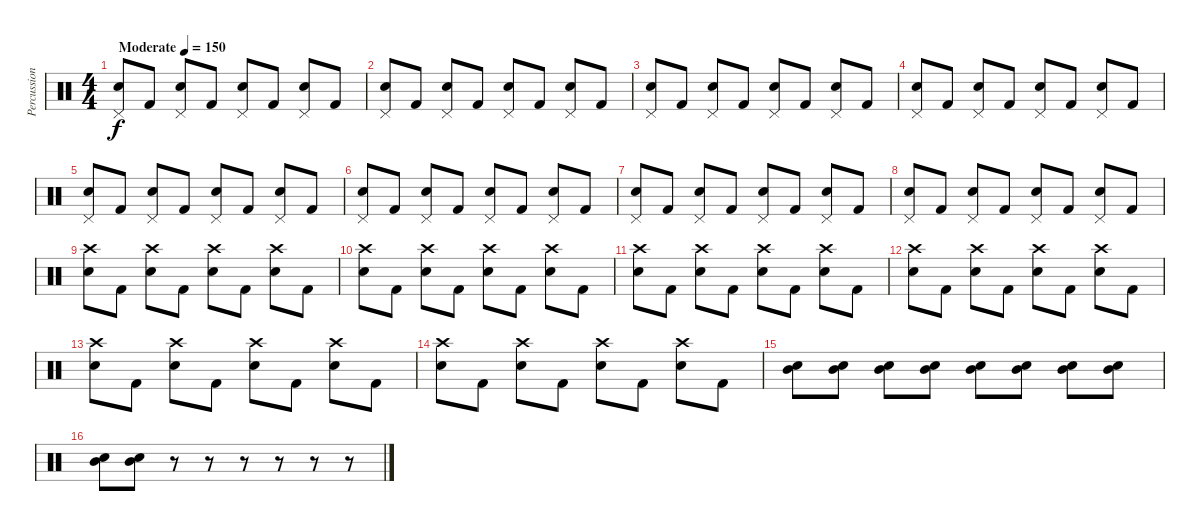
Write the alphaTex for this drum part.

\track ("Percussion" "Percussion") {instrument percussion}
\staff {score}
\articulation defaults
\ts (4 4)
\tempo (150 "Moderate")
\clef neutral
\ks c
("Pedal Hi-Hat (hit)" "Snare (hit) 2").8{dy f} "Kick (hit) 2".8 ("Pedal Hi-Hat (hit)" "Snare (hit) 2").8 "Kick (hit) 2".8 ("Pedal Hi-Hat (hit)" "Snare (hit) 2").8 "Kick (hit) 2".8 ("Pedal Hi-Hat (hit)" "Snare (hit) 2").8 "Kick (hit) 2".8 |
("Pedal Hi-Hat (hit)" "Snare (hit) 2").8 "Kick (hit) 2".8 ("Pedal Hi-Hat (hit)" "Snare (hit) 2").8 "Kick (hit) 2".8 ("Pedal Hi-Hat (hit)" "Snare (hit) 2").8 "Kick (hit) 2".8 ("Pedal Hi-Hat (hit)" "Snare (hit) 2").8 "Kick (hit) 2".8 |
("Pedal Hi-Hat (hit)" "Snare (hit) 2").8 "Kick (hit) 2".8 ("Pedal Hi-Hat (hit)" "Snare (hit) 2").8 "Kick (hit) 2".8 ("Pedal Hi-Hat (hit)" "Snare (hit) 2").8 "Kick (hit) 2".8 ("Pedal Hi-Hat (hit)" "Snare (hit) 2").8 "Kick (hit) 2".8 |
("Pedal Hi-Hat (hit)" "Snare (hit) 2").8 "Kick (hit) 2".8 ("Pedal Hi-Hat (hit)" "Snare (hit) 2").8 "Kick (hit) 2".8 ("Pedal Hi-Hat (hit)" "Snare (hit) 2").8 "Kick (hit) 2".8 ("Pedal Hi-Hat (hit)" "Snare (hit) 2").8 "Kick (hit) 2".8 |
("Pedal Hi-Hat (hit)" "Snare (hit) 2").8 "Kick (hit) 2".8 ("Pedal Hi-Hat (hit)" "Snare (hit) 2").8 "Kick (hit) 2".8 ("Pedal Hi-Hat (hit)" "Snare (hit) 2").8 "Kick (hit) 2".8 ("Pedal Hi-Hat (hit)" "Snare (hit) 2").8 "Kick (hit) 2".8 |
("Pedal Hi-Hat (hit)" "Snare (hit) 2").8 "Kick (hit) 2".8 ("Pedal Hi-Hat (hit)" "Snare (hit) 2").8 "Kick (hit) 2".8 ("Pedal Hi-Hat (hit)" "Snare (hit) 2").8 "Kick (hit) 2".8 ("Pedal Hi-Hat (hit)" "Snare (hit) 2").8 "Kick (hit) 2".8 |
("Pedal Hi-Hat (hit)" "Snare (hit) 2").8 "Kick (hit) 2".8 ("Pedal Hi-Hat (hit)" "Snare (hit) 2").8 "Kick (hit) 2".8 ("Pedal Hi-Hat (hit)" "Snare (hit) 2").8 "Kick (hit) 2".8 ("Pedal Hi-Hat (hit)" "Snare (hit) 2").8 "Kick (hit) 2".8 |
("Pedal Hi-Hat (hit)" "Snare (hit) 2").8 "Kick (hit) 2".8 ("Pedal Hi-Hat (hit)" "Snare (hit) 2").8 "Kick (hit) 2".8 ("Pedal Hi-Hat (hit)" "Snare (hit) 2").8 "Kick (hit) 2".8 ("Pedal Hi-Hat (hit)" "Snare (hit) 2").8 "Kick (hit) 2".8 |
("Crash high (hit)" "Snare (hit) 2").8 "Kick (hit) 2".8 ("Crash high (hit)" "Snare (hit) 2").8 "Kick (hit) 2".8 ("Crash high (hit)" "Snare (hit) 2").8 "Kick (hit) 2".8 ("Crash high (hit)" "Snare (hit) 2").8 "Kick (hit) 2".8 |
("Crash high (hit)" "Snare (hit) 2").8 "Kick (hit) 2".8 ("Crash high (hit)" "Snare (hit) 2").8 "Kick (hit) 2".8 ("Crash high (hit)" "Snare (hit) 2").8 "Kick (hit) 2".8 ("Crash high (hit)" "Snare (hit) 2").8 "Kick (hit) 2".8 |
("Crash high (hit)" "Snare (hit) 2").8 "Kick (hit) 2".8 ("Crash high (hit)" "Snare (hit) 2").8 "Kick (hit) 2".8 ("Crash high (hit)" "Snare (hit) 2").8 "Kick (hit) 2".8 ("Crash high (hit)" "Snare (hit) 2").8 "Kick (hit) 2".8 |
("Crash high (hit)" "Snare (hit) 2").8 "Kick (hit) 2".8 ("Crash high (hit)" "Snare (hit) 2").8 "Kick (hit) 2".8 ("Crash high (hit)" "Snare (hit) 2").8 "Kick (hit) 2".8 ("Crash high (hit)" "Snare (hit) 2").8 "Kick (hit) 2".8 |
("Crash high (hit)" "Snare (hit) 2").8 "Kick (hit) 2".8 ("Crash high (hit)" "Snare (hit) 2").8 "Kick (hit) 2".8 ("Crash high (hit)" "Snare (hit) 2").8 "Kick (hit) 2".8 ("Crash high (hit)" "Snare (hit) 2").8 "Kick (hit) 2".8 |
("Crash high (hit)" "Snare (hit) 2").8 "Kick (hit) 2".8 ("Crash high (hit)" "Snare (hit) 2").8 "Kick (hit) 2".8 ("Crash high (hit)" "Snare (hit) 2").8 "Kick (hit) 2".8 ("Crash high (hit)" "Snare (hit) 2").8 "Kick (hit) 2".8 |
("Mid Tom (hit)" "Electric Snare (hit)").8 ("Mid Tom (hit)" "Electric Snare (hit)").8 ("Mid Tom (hit)" "Electric Snare (hit)").8 ("Mid Tom (hit)" "Electric Snare (hit)").8 ("Mid Tom (hit)" "Electric Snare (hit)").8 ("Mid Tom (hit)" "Electric Snare (hit)").8 ("Mid Tom (hit)" "Electric Snare (hit)").8 ("Mid Tom (hit)" "Electric Snare (hit)").8 |
("Mid Tom (hit)" "Electric Snare (hit)").8 ("Mid Tom (hit)" "Electric Snare (hit)").8 r.8 r.8 r.8 r.8 r.8 r.8
